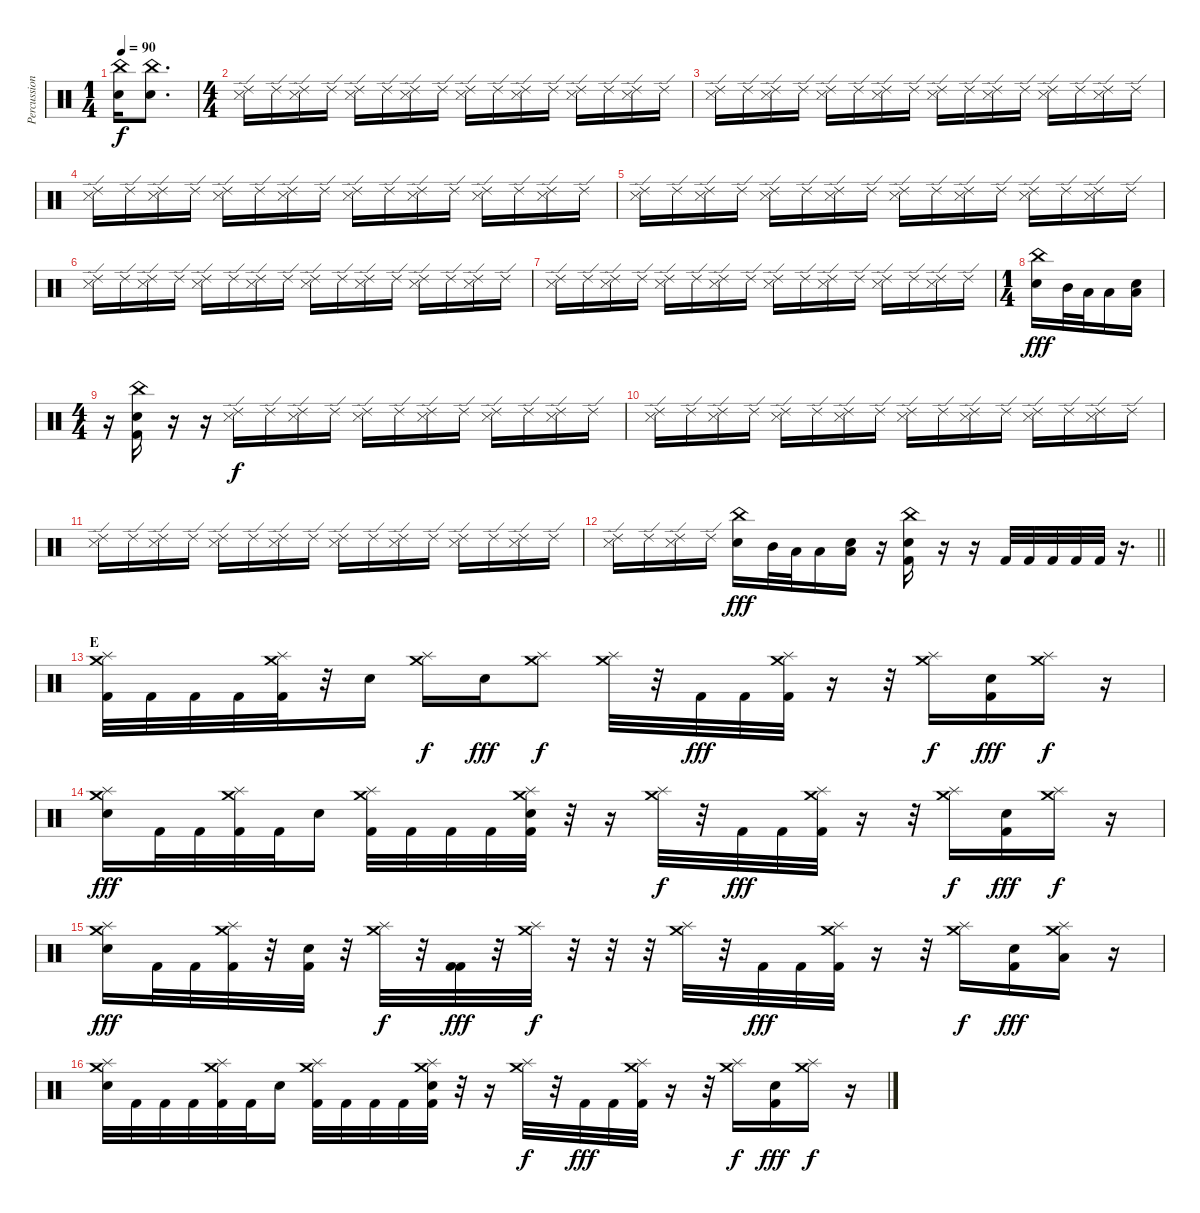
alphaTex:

\track ("Percussions" "Percussion") {instrument percussion}
\staff {score}
\articulation defaults
\ts (1 4)
\tempo 90
\clef neutral
\ks c
("China (hit)" "Snare (hit) 2").16{dy f} ("China (hit)" "Snare (hit) 2").8{d} |
\ts (4 4)
("Ride (edge) 2" "Metronome (hit)").16 "Ride (edge) 2".16 ("Ride (edge) 2" "Metronome (hit)").16 "Ride (edge) 2".16 ("Ride (edge) 2" "Metronome (hit)").16 "Ride (edge) 2".16 ("Ride (edge) 2" "Metronome (hit)").16 "Ride (edge) 2".16 ("Ride (edge) 2" "Metronome (hit)").16 "Ride (edge) 2".16 ("Ride (edge) 2" "Metronome (hit)").16 "Ride (edge) 2".16 ("Ride (edge) 2" "Metronome (hit)").16 "Ride (edge) 2".16 ("Ride (edge) 2" "Metronome (hit)").16 "Ride (edge) 2".16 |
("Ride (edge) 2" "Metronome (hit)").16 "Ride (edge) 2".16 ("Ride (edge) 2" "Metronome (hit)").16 "Ride (edge) 2".16 ("Ride (edge) 2" "Metronome (hit)").16 "Ride (edge) 2".16 ("Ride (edge) 2" "Metronome (hit)").16 "Ride (edge) 2".16 ("Ride (edge) 2" "Metronome (hit)").16 "Ride (edge) 2".16 ("Ride (edge) 2" "Metronome (hit)").16 "Ride (edge) 2".16 ("Ride (edge) 2" "Metronome (hit)").16 "Ride (edge) 2".16 ("Ride (edge) 2" "Metronome (hit)").16 "Ride (edge) 2".16 |
("Ride (edge) 2" "Metronome (hit)").16 "Ride (edge) 2".16 ("Ride (edge) 2" "Metronome (hit)").16 "Ride (edge) 2".16 ("Ride (edge) 2" "Metronome (hit)").16 "Ride (edge) 2".16 ("Ride (edge) 2" "Metronome (hit)").16 "Ride (edge) 2".16 ("Ride (edge) 2" "Metronome (hit)").16 "Ride (edge) 2".16 ("Ride (edge) 2" "Metronome (hit)").16 "Ride (edge) 2".16 ("Ride (edge) 2" "Metronome (hit)").16 "Ride (edge) 2".16 ("Ride (edge) 2" "Metronome (hit)").16 "Ride (edge) 2".16 |
("Ride (edge) 2" "Metronome (hit)").16 "Ride (edge) 2".16 ("Ride (edge) 2" "Metronome (hit)").16 "Ride (edge) 2".16 ("Ride (edge) 2" "Metronome (hit)").16 "Ride (edge) 2".16 ("Ride (edge) 2" "Metronome (hit)").16 "Ride (edge) 2".16 ("Ride (edge) 2" "Metronome (hit)").16 "Ride (edge) 2".16 ("Ride (edge) 2" "Metronome (hit)").16 "Ride (edge) 2".16 ("Ride (edge) 2" "Metronome (hit)").16 "Ride (edge) 2".16 ("Ride (edge) 2" "Metronome (hit)").16 "Ride (edge) 2".16 |
("Ride (edge) 2" "Metronome (hit)").16 "Ride (edge) 2".16 ("Ride (edge) 2" "Metronome (hit)").16 "Ride (edge) 2".16 ("Ride (edge) 2" "Metronome (hit)").16 "Ride (edge) 2".16 ("Ride (edge) 2" "Metronome (hit)").16 "Ride (edge) 2".16 ("Ride (edge) 2" "Metronome (hit)").16 "Ride (edge) 2".16 ("Ride (edge) 2" "Metronome (hit)").16 "Ride (edge) 2".16 ("Ride (edge) 2" "Metronome (hit)").16 "Ride (edge) 2".16 ("Ride (edge) 2" "Metronome (hit)").16 "Ride (edge) 2".16 |
("Ride (edge) 2" "Metronome (hit)").16 "Ride (edge) 2".16 ("Ride (edge) 2" "Metronome (hit)").16 "Ride (edge) 2".16 ("Ride (edge) 2" "Metronome (hit)").16 "Ride (edge) 2".16 ("Ride (edge) 2" "Metronome (hit)").16 "Ride (edge) 2".16 ("Ride (edge) 2" "Metronome (hit)").16 "Ride (edge) 2".16 ("Ride (edge) 2" "Metronome (hit)").16 "Ride (edge) 2".16 ("Ride (edge) 2" "Metronome (hit)").16 "Ride (edge) 2".16 ("Ride (edge) 2" "Metronome (hit)").16 "Ride (edge) 2".16 |
\ts (1 4)
("China (hit)" "Snare (hit) 2").16{dy fff} "Mid Tom (hit)".32 "Low Tom (hit)".32 "Low Floor Tom (hit)".16 ("Low Floor Tom (hit)" "Snare (hit) 2").16 |
\ts (4 4)
r.16 ("China (hit)" "Snare (hit) 2" "Kick (hit) 2").16 r.16 r.16 ("Ride (edge) 2" "Metronome (hit)").16{dy f} "Ride (edge) 2".16 ("Ride (edge) 2" "Metronome (hit)").16 "Ride (edge) 2".16 ("Ride (edge) 2" "Metronome (hit)").16 "Ride (edge) 2".16 ("Ride (edge) 2" "Metronome (hit)").16 "Ride (edge) 2".16 ("Ride (edge) 2" "Metronome (hit)").16 "Ride (edge) 2".16 ("Ride (edge) 2" "Metronome (hit)").16 "Ride (edge) 2".16 |
("Ride (edge) 2" "Metronome (hit)").16 "Ride (edge) 2".16 ("Ride (edge) 2" "Metronome (hit)").16 "Ride (edge) 2".16 ("Ride (edge) 2" "Metronome (hit)").16 "Ride (edge) 2".16 ("Ride (edge) 2" "Metronome (hit)").16 "Ride (edge) 2".16 ("Ride (edge) 2" "Metronome (hit)").16 "Ride (edge) 2".16 ("Ride (edge) 2" "Metronome (hit)").16 "Ride (edge) 2".16 ("Ride (edge) 2" "Metronome (hit)").16 "Ride (edge) 2".16 ("Ride (edge) 2" "Metronome (hit)").16 "Ride (edge) 2".16 |
("Ride (edge) 2" "Metronome (hit)").16 "Ride (edge) 2".16 ("Ride (edge) 2" "Metronome (hit)").16 "Ride (edge) 2".16 ("Ride (edge) 2" "Metronome (hit)").16 "Ride (edge) 2".16 ("Ride (edge) 2" "Metronome (hit)").16 "Ride (edge) 2".16 ("Ride (edge) 2" "Metronome (hit)").16 "Ride (edge) 2".16 ("Ride (edge) 2" "Metronome (hit)").16 "Ride (edge) 2".16 ("Ride (edge) 2" "Metronome (hit)").16 "Ride (edge) 2".16 ("Ride (edge) 2" "Metronome (hit)").16 "Ride (edge) 2".16 |
\barLineRight lightlight
("Ride (edge) 2" "Metronome (hit)").16 "Ride (edge) 2".16 ("Ride (edge) 2" "Metronome (hit)").16 "Ride (edge) 2".16 ("China (hit)" "Snare (hit) 2").16{dy fff} "Mid Tom (hit)".32 "Low Tom (hit)".32 "Low Floor Tom (hit)".16 ("Low Floor Tom (hit)" "Snare (hit) 2").16 r.16 ("China (hit)" "Snare (hit) 2" "Kick (hit) 2").16 r.16 r.16 "Kick (hit) 2".32 "Kick (hit) 2".32 "Kick (hit) 2".32 "Kick (hit) 2".32 "Kick (hit) 2".32 r.16{d} |
\section ("" "E")
("Crash medium (hit)" "Splash (hit)" "Kick (hit) 2").32 "Kick (hit) 2".32 "Kick (hit) 2".32 "Kick (hit) 2".32 ("Crash medium (hit)" "Splash (hit)" "Kick (hit) 2").32 r.32 "Snare (hit) 2".16 ("Crash medium (hit)" "Splash (hit)").16{dy f} "Snare (hit) 2".16{dy fff} ("Crash medium (hit)" "Splash (hit)").8{dy f} ("Crash medium (hit)" "Splash (hit)").32 r.32 "Kick (hit) 2".32{dy fff} "Kick (hit) 2".32 ("Crash medium (hit)" "Splash (hit)" "Kick (hit) 2").32 r.16 r.32 ("Crash medium (hit)" "Splash (hit)").16{dy f} ("Snare (hit) 2" "Kick (hit) 2").16{dy fff} ("Crash medium (hit)" "Splash (hit)").16{dy f} r.16 |
("Crash medium (hit)" "Splash (hit)" "Snare (hit) 2").16{dy fff} "Kick (hit) 2".32 "Kick (hit) 2".32 ("Crash medium (hit)" "Splash (hit)" "Kick (hit) 2").32 "Kick (hit) 2".32 "Snare (hit) 2".16 ("Crash medium (hit)" "Splash (hit)" "Kick (hit) 2").32 "Kick (hit) 2".32 "Kick (hit) 2".32 "Kick (hit) 2".32 ("Crash medium (hit)" "Splash (hit)" "Snare (hit) 2" "Kick (hit) 2").32 r.32 r.16 ("Crash medium (hit)" "Splash (hit)").32{dy f} r.32 "Kick (hit) 2".32{dy fff} "Kick (hit) 2".32 ("Crash medium (hit)" "Splash (hit)" "Kick (hit) 2").32 r.16 r.32 ("Crash medium (hit)" "Splash (hit)").16{dy f} ("Snare (hit) 2" "Kick (hit) 2").16{dy fff} ("Crash medium (hit)" "Splash (hit)").16{dy f} r.16 |
("Crash medium (hit)" "Splash (hit)" "Snare (hit) 2").16{dy fff} "Kick (hit) 2".32 "Kick (hit) 2".32 ("Crash medium (hit)" "Splash (hit)" "Kick (hit) 2").32 r.32 ("Snare (hit) 2" "Kick (hit) 2").32 r.32 ("Crash medium (hit)" "Splash (hit)").32{dy f} r.32 ("Kick (hit) 2" "Kick (hit) 2").32{dy fff} r.32 ("Crash medium (hit)" "Splash (hit)").32{dy f} r.32 r.32 r.32 ("Crash medium (hit)" "Splash (hit)").32 r.32 "Kick (hit) 2".32{dy fff} "Kick (hit) 2".32 ("Crash medium (hit)" "Splash (hit)" "Kick (hit) 2").32 r.16 r.32 ("Crash medium (hit)" "Splash (hit)").16{dy f} ("Snare (hit) 2" "Kick (hit) 2").16{dy fff} ("Crash medium (hit)" "Splash (hit)" "Low Tom (hit)").16 r.16 |
("Crash medium (hit)" "Splash (hit)" "Snare (hit) 2").32 "Kick (hit) 2".32 "Kick (hit) 2".32 "Kick (hit) 2".32 ("Crash medium (hit)" "Splash (hit)" "Kick (hit) 2").32 "Kick (hit) 2".32 "Snare (hit) 2".16 ("Crash medium (hit)" "Splash (hit)" "Kick (hit) 2").32 "Kick (hit) 2".32 "Kick (hit) 2".32 "Kick (hit) 2".32 ("Crash medium (hit)" "Splash (hit)" "Snare (hit) 2" "Kick (hit) 2").32 r.32 r.16 ("Crash medium (hit)" "Splash (hit)").32{dy f} r.32 "Kick (hit) 2".32{dy fff} "Kick (hit) 2".32 ("Crash medium (hit)" "Splash (hit)" "Kick (hit) 2").32 r.16 r.32 ("Crash medium (hit)" "Splash (hit)").16{dy f} ("Snare (hit) 2" "Kick (hit) 2").16{dy fff} ("Crash medium (hit)" "Splash (hit)").16{dy f} r.16
